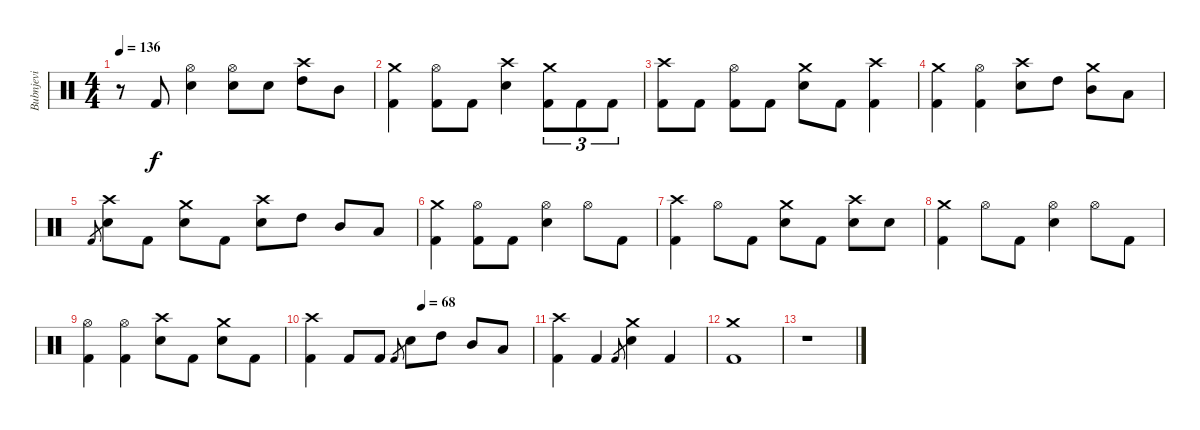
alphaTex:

\track ("Bubnjevi" "Bubnjevi") {instrument percussion}
\staff {score}
\articulation defaults
\ts (4 4)
\tempo 136
\clef neutral
\ks c
r.8{dy f} "Kick (hit) 2".8 ("Hi-Hat (open)" "Snare (hit) 2").4 ("Hi-Hat (open)" "Snare (hit) 2").8 "Snare (hit) 2".8 ("Crash high (hit)" "High Tom (hit)").8 "Mid Tom (hit)".8 |
("Crash medium (hit)" "Kick (hit) 2").4 ("Hi-Hat (open)" "Kick (hit) 2").8 "Kick (hit) 2".8 ("Crash high (hit)" "Snare (hit) 2").4 ("Crash medium (hit)" "Kick (hit) 2").8{tu (3 2)} "Kick (hit) 2".8{tu (3 2)} "Kick (hit) 2".8{tu (3 2)} |
("Crash high (hit)" "Kick (hit) 2").8 "Kick (hit) 2".8 ("Hi-Hat (open)" "Kick (hit) 2").8 "Kick (hit) 2".8 ("Crash medium (hit)" "Snare (hit) 2").8 "Kick (hit) 2".8 ("Crash high (hit)" "Kick (hit) 2").4 |
("Crash medium (hit)" "Kick (hit) 2").4 ("Hi-Hat (open)" "Kick (hit) 2").4 ("Crash high (hit)" "Snare (hit) 2").8 "High Tom (hit)".8 ("Crash medium (hit)" "Mid Tom (hit)").8 "Low Tom (hit)".8 |
"Kick (hit) 2".8{gr} ("Crash high (hit)" "Snare (hit) 2").8 "Kick (hit) 2".8 ("Crash medium (hit)" "Snare (hit) 2").8 "Kick (hit) 2".8 ("Crash high (hit)" "Snare (hit) 2").8 "High Tom (hit)".8 "Mid Tom (hit)".8 "Low Tom (hit)".8 |
("Crash medium (hit)" "Kick (hit) 2").4 ("Hi-Hat (open)" "Kick (hit) 2").8 "Kick (hit) 2".8 ("Hi-Hat (open)" "Snare (hit) 2").4 "Hi-Hat (open)".8 "Kick (hit) 2".8 |
("Crash high (hit)" "Kick (hit) 2").4 "Hi-Hat (open)".8 "Kick (hit) 2".8 ("Crash medium (hit)" "Snare (hit) 2").8 "Kick (hit) 2".8 ("Crash high (hit)" "Snare (hit) 2").8 "Snare (hit) 2".8 |
("Crash medium (hit)" "Kick (hit) 2").4 "Hi-Hat (open)".8 "Kick (hit) 2".8 ("Hi-Hat (open)" "Snare (hit) 2").4 "Hi-Hat (open)".8 "Kick (hit) 2".8 |
("Hi-Hat (open)" "Kick (hit) 2").4 ("Hi-Hat (open)" "Kick (hit) 2").4 ("Crash high (hit)" "Snare (hit) 2").8 "Kick (hit) 2".8 ("Crash medium (hit)" "Snare (hit) 2").8 "Kick (hit) 2".8 |
\tempo (68 0.5)
("Crash high (hit)" "Kick (hit) 2").4 "Kick (hit) 2".8 "Kick (hit) 2".8 "Kick (hit) 2".8{gr} "Snare (hit) 2".8 "High Tom (hit)".8 "Mid Tom (hit)".8 "Low Tom (hit)".8 |
("Crash high (hit)" "Kick (hit) 2").4 "Kick (hit) 2".4 "Kick (hit) 2".8{gr} ("Crash medium (hit)" "Snare (hit) 2").4 "Kick (hit) 2".4 |
("Crash medium (hit)" "Kick (hit) 2").1{volume 0} |
r.1
